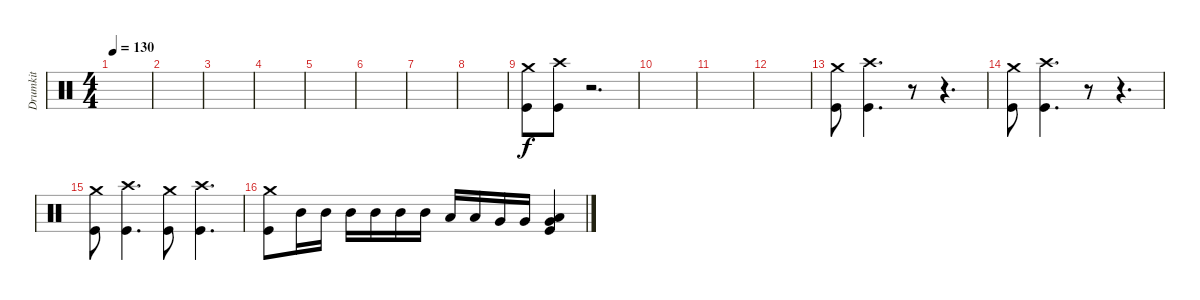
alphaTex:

\track ("Drumkit" "Drumkit") {instrument percussion}
\staff {score}
\articulation defaults
\ts (4 4)
\tempo 130
\clef neutral
\ks c
|
|
|
|
|
|
|
|
("Kick (hit)" "Crash medium (hit)").8 ("Kick (hit)" "Crash high (hit)").8 r.2{d} |
|
|
|
("Crash medium (hit)" "Kick (hit)").8 ("Kick (hit)" "Crash high (hit)").4{d} r.8 r.4{d} |
("Crash medium (hit)" "Kick (hit)").8 ("Kick (hit)" "Crash high (hit)").4{d} r.8 r.4{d} |
("Crash medium (hit)" "Kick (hit)").8 ("Kick (hit)" "Crash high (hit)").4{d} ("Kick (hit)" "Crash medium (hit)").8 ("Kick (hit)" "Crash high (hit)").4{d} |
("Kick (hit)" "Crash medium (hit)").8 "Mid Tom (hit)".16 "Mid Tom (hit)".16 "Mid Tom (hit)".16 "Mid Tom (hit)".16 "Mid Tom (hit)".16 "Mid Tom (hit)".16 "Low Tom (hit)".16 "Low Tom (hit)".16 "Very Low Tom (hit)".16 "Very Low Tom (hit)".16 ("Low Tom (hit)" "Very Low Tom (hit)" "Kick (hit)").4
